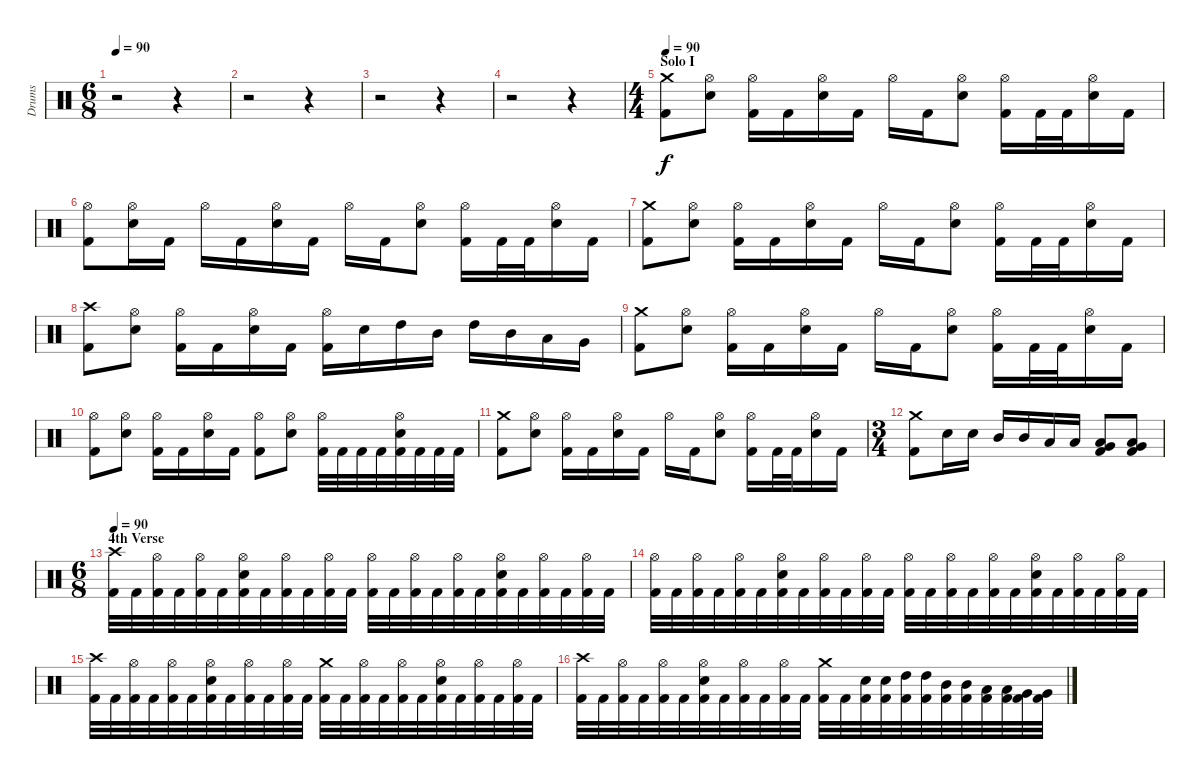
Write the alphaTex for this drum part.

\track ("Drums" "Drums") {instrument percussion}
\staff {score}
\articulation defaults
\ts (6 8)
\tempo 90
\clef neutral
\ks c
r.2{dy f} r.4 |
r.2 r.4 |
r.2 r.4 |
r.2 r.4 |
\ts (4 4)
\section ("" "Solo I")
\tempo 90
("Kick (hit) 2" "Crash medium (hit)").8 ("Electric Snare (hit)" "Hi-Hat (open)").8 ("Kick (hit) 2" "Hi-Hat (open)").16 "Kick (hit) 2".16 ("Electric Snare (hit)" "Hi-Hat (open)").16 "Kick (hit) 2".16 "Hi-Hat (open)".16 "Kick (hit) 2".16 ("Electric Snare (hit)" "Hi-Hat (open)").8 ("Kick (hit) 2" "Hi-Hat (open)").16 "Kick (hit) 2".32 "Kick (hit) 2".32 ("Electric Snare (hit)" "Hi-Hat (open)").16 "Kick (hit) 2".16 |
("Kick (hit) 2" "Hi-Hat (open)").8 ("Electric Snare (hit)" "Hi-Hat (open)").16 "Kick (hit) 2".16 "Hi-Hat (open)".16 "Kick (hit) 2".16 ("Electric Snare (hit)" "Hi-Hat (open)").16 "Kick (hit) 2".16 "Hi-Hat (open)".16 "Kick (hit) 2".16 ("Electric Snare (hit)" "Hi-Hat (open)").8 ("Kick (hit) 2" "Hi-Hat (open)").16 "Kick (hit) 2".32 "Kick (hit) 2".32 ("Electric Snare (hit)" "Hi-Hat (open)").16 "Kick (hit) 2".16 |
("Kick (hit) 2" "Crash medium (hit)").8 ("Electric Snare (hit)" "Hi-Hat (open)").8 ("Kick (hit) 2" "Hi-Hat (open)").16 "Kick (hit) 2".16 ("Electric Snare (hit)" "Hi-Hat (open)").16 "Kick (hit) 2".16 "Hi-Hat (open)".16 "Kick (hit) 2".16 ("Electric Snare (hit)" "Hi-Hat (open)").8 ("Kick (hit) 2" "Hi-Hat (open)").16 "Kick (hit) 2".32 "Kick (hit) 2".32 ("Electric Snare (hit)" "Hi-Hat (open)").16 "Kick (hit) 2".16 |
("Kick (hit) 2" "Crash high (hit)").8 ("Electric Snare (hit)" "Hi-Hat (open)").8 ("Kick (hit) 2" "Hi-Hat (open)").16 "Kick (hit) 2".16 ("Electric Snare (hit)" "Hi-Hat (open)").16 "Kick (hit) 2".16 ("Kick (hit) 2" "Hi-Hat (open)").16 "Electric Snare (hit)".16 "High Tom (hit)".16 "Mid Tom (hit)".16 "High Tom (hit)".16 "Mid Tom (hit)".16 "Low Tom (hit)".16 "Very Low Tom (hit)".16 |
("Kick (hit) 2" "Crash medium (hit)").8 ("Electric Snare (hit)" "Hi-Hat (open)").8 ("Kick (hit) 2" "Hi-Hat (open)").16 "Kick (hit) 2".16 ("Electric Snare (hit)" "Hi-Hat (open)").16 "Kick (hit) 2".16 "Hi-Hat (open)".16 "Kick (hit) 2".16 ("Electric Snare (hit)" "Hi-Hat (open)").8 ("Kick (hit) 2" "Hi-Hat (open)").16 "Kick (hit) 2".32 "Kick (hit) 2".32 ("Electric Snare (hit)" "Hi-Hat (open)").16 "Kick (hit) 2".16 |
("Kick (hit) 2" "Hi-Hat (open)").8 ("Electric Snare (hit)" "Hi-Hat (open)").8 ("Kick (hit) 2" "Hi-Hat (open)").16 "Kick (hit) 2".16 ("Electric Snare (hit)" "Hi-Hat (open)").16 "Kick (hit) 2".16 ("Kick (hit) 2" "Hi-Hat (open)").8 ("Electric Snare (hit)" "Hi-Hat (open)").8 ("Kick (hit) 2" "Hi-Hat (open)").32 "Kick (hit) 2".32 "Kick (hit) 2".32 "Kick (hit) 2".32 ("Kick (hit) 2" "Electric Snare (hit)" "Hi-Hat (open)").32 "Kick (hit) 2".32 "Kick (hit) 2".32 "Kick (hit) 2".32 |
("Kick (hit) 2" "Crash medium (hit)").8 ("Electric Snare (hit)" "Hi-Hat (open)").8 ("Kick (hit) 2" "Hi-Hat (open)").16 "Kick (hit) 2".16 ("Electric Snare (hit)" "Hi-Hat (open)").16 "Kick (hit) 2".16 "Hi-Hat (open)".16 "Kick (hit) 2".16 ("Electric Snare (hit)" "Hi-Hat (open)").8 ("Kick (hit) 2" "Hi-Hat (open)").16 "Kick (hit) 2".32 "Kick (hit) 2".32 ("Electric Snare (hit)" "Hi-Hat (open)").16 "Kick (hit) 2".16 |
\ts (3 4)
("Kick (hit) 2" "Crash medium (hit)").8 "Electric Snare (hit)".16 "Electric Snare (hit)".16 "Mid Tom (hit)".16 "Mid Tom (hit)".16 "Low Tom (hit)".16 "Low Tom (hit)".16 ("Kick (hit) 2" "Very Low Tom (hit)" "Low Tom (hit)").8 ("Kick (hit) 2" "Very Low Tom (hit)" "Low Tom (hit)").8 |
\ts (6 8)
\section ("" "4th Verse")
\tempo 90
("Kick (hit) 2" "Crash high (hit)").32 "Kick (hit) 2".32 ("Kick (hit) 2" "Hi-Hat (open)").32 "Kick (hit) 2".32 ("Kick (hit) 2" "Hi-Hat (open)").32 "Kick (hit) 2".32 ("Kick (hit) 2" "Electric Snare (hit)" "Hi-Hat (open)").32 "Kick (hit) 2".32 ("Kick (hit) 2" "Hi-Hat (open)").32 "Kick (hit) 2".32 ("Kick (hit) 2" "Hi-Hat (open)").32 "Kick (hit) 2".32 ("Kick (hit) 2" "Hi-Hat (open)").32 "Kick (hit) 2".32 ("Kick (hit) 2" "Hi-Hat (open)").32 "Kick (hit) 2".32 ("Kick (hit) 2" "Hi-Hat (open)").32 "Kick (hit) 2".32 ("Kick (hit) 2" "Electric Snare (hit)" "Hi-Hat (open)").32 "Kick (hit) 2".32 ("Kick (hit) 2" "Hi-Hat (open)").32 "Kick (hit) 2".32 ("Kick (hit) 2" "Hi-Hat (open)").32 "Kick (hit) 2".32 |
("Kick (hit) 2" "Hi-Hat (open)").32 "Kick (hit) 2".32 ("Kick (hit) 2" "Hi-Hat (open)").32 "Kick (hit) 2".32 ("Kick (hit) 2" "Hi-Hat (open)").32 "Kick (hit) 2".32 ("Kick (hit) 2" "Electric Snare (hit)" "Hi-Hat (open)").32 "Kick (hit) 2".32 ("Kick (hit) 2" "Hi-Hat (open)").32 "Kick (hit) 2".32 ("Kick (hit) 2" "Hi-Hat (open)").32 "Kick (hit) 2".32 ("Kick (hit) 2" "Hi-Hat (open)").32 "Kick (hit) 2".32 ("Kick (hit) 2" "Hi-Hat (open)").32 "Kick (hit) 2".32 ("Kick (hit) 2" "Hi-Hat (open)").32 "Kick (hit) 2".32 ("Kick (hit) 2" "Electric Snare (hit)" "Hi-Hat (open)").32 "Kick (hit) 2".32 ("Kick (hit) 2" "Hi-Hat (open)").32 "Kick (hit) 2".32 ("Kick (hit) 2" "Hi-Hat (open)").32 "Kick (hit) 2".32 |
("Kick (hit) 2" "Crash high (hit)").32 "Kick (hit) 2".32 ("Kick (hit) 2" "Hi-Hat (open)").32 "Kick (hit) 2".32 ("Kick (hit) 2" "Hi-Hat (open)").32 "Kick (hit) 2".32 ("Kick (hit) 2" "Electric Snare (hit)" "Hi-Hat (open)").32 "Kick (hit) 2".32 ("Kick (hit) 2" "Hi-Hat (open)").32 "Kick (hit) 2".32 ("Kick (hit) 2" "Hi-Hat (open)").32 "Kick (hit) 2".32 ("Kick (hit) 2" "Crash medium (hit)").32 "Kick (hit) 2".32 ("Kick (hit) 2" "Hi-Hat (open)").32 "Kick (hit) 2".32 ("Kick (hit) 2" "Hi-Hat (open)").32 "Kick (hit) 2".32 ("Kick (hit) 2" "Electric Snare (hit)" "Hi-Hat (open)").32 "Kick (hit) 2".32 ("Kick (hit) 2" "Hi-Hat (open)").32 "Kick (hit) 2".32 ("Kick (hit) 2" "Hi-Hat (open)").32 "Kick (hit) 2".32 |
("Kick (hit) 2" "Crash high (hit)").32 "Kick (hit) 2".32 ("Kick (hit) 2" "Hi-Hat (open)").32 "Kick (hit) 2".32 ("Kick (hit) 2" "Hi-Hat (open)").32 "Kick (hit) 2".32 ("Kick (hit) 2" "Electric Snare (hit)" "Hi-Hat (open)").32 "Kick (hit) 2".32 ("Kick (hit) 2" "Hi-Hat (open)").32 "Kick (hit) 2".32 ("Kick (hit) 2" "Hi-Hat (open)").32 "Kick (hit) 2".32 ("Kick (hit) 2" "Crash medium (hit)").32 "Kick (hit) 2".32 ("Kick (hit) 2" "Electric Snare (hit)").32 ("Kick (hit) 2" "Electric Snare (hit)").32 ("Kick (hit) 2" "High Tom (hit)").32 ("Kick (hit) 2" "High Tom (hit)").32 ("Kick (hit) 2" "Mid Tom (hit)").32 ("Kick (hit) 2" "Mid Tom (hit)").32 ("Kick (hit) 2" "Low Tom (hit)").32 ("Kick (hit) 2" "Low Tom (hit)").32 ("Kick (hit) 2" "Very Low Tom (hit)").32 ("Kick (hit) 2" "Very Low Tom (hit)").32
